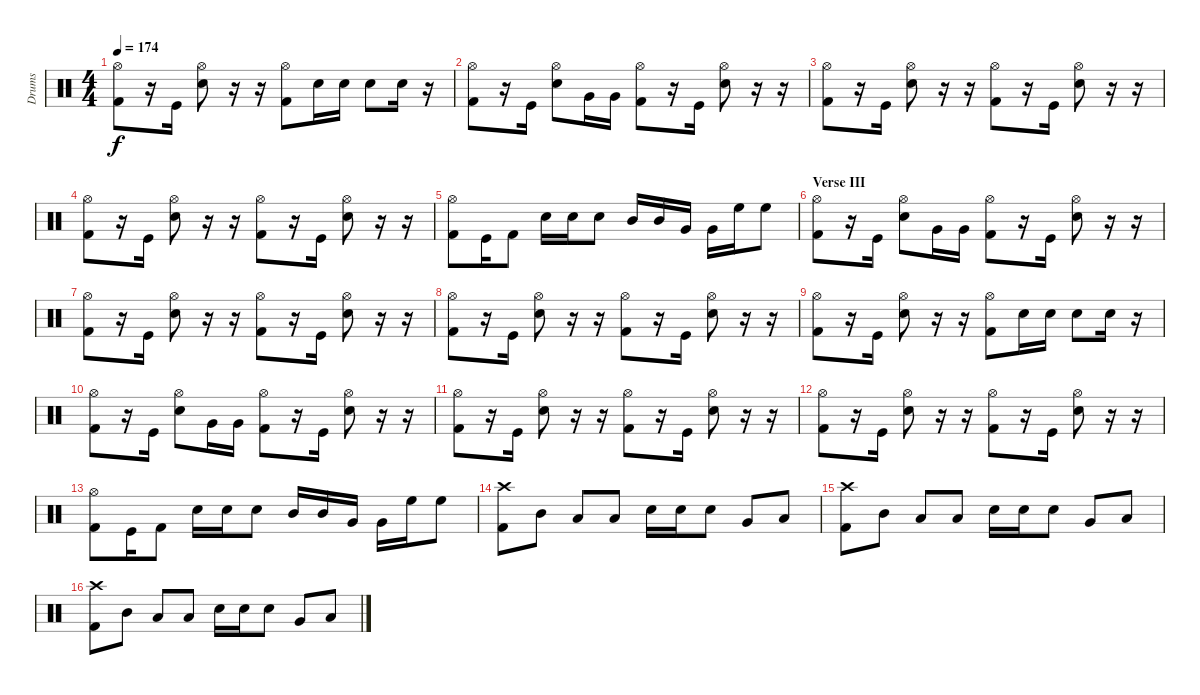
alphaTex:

\track ("Drums" "Drums") {instrument percussion}
\staff {score}
\articulation defaults
\ts (4 4)
\tempo 174
\clef neutral
\ks c
("Hi-Hat (open)" "Kick (hit) 2").8{dy f} r.16 "Kick (hit)".16 ("Hi-Hat (open)" "Snare (hit) 2").8 r.16 r.16 ("Hi-Hat (open)" "Kick (hit) 2").8 "Snare (hit) 2".16 "Snare (hit) 2".16 "Snare (hit) 2".8 "Snare (hit) 2".16 r.16 |
("Hi-Hat (open)" "Kick (hit) 2").8 r.16 "Kick (hit)".16 ("Hi-Hat (open)" "Snare (hit) 2").8 "Very Low Tom (hit)".16 "Very Low Tom (hit)".16 ("Hi-Hat (open)" "Kick (hit) 2").8 r.16 "Kick (hit)".16 ("Hi-Hat (open)" "Snare (hit) 2").8 r.16 r.16 |
("Hi-Hat (open)" "Kick (hit) 2").8 r.16 "Kick (hit)".16 ("Hi-Hat (open)" "Snare (hit) 2").8 r.16 r.16 ("Hi-Hat (open)" "Kick (hit) 2").8 r.16 "Kick (hit)".16 ("Hi-Hat (open)" "Snare (hit) 2").8 r.16 r.16 |
("Hi-Hat (open)" "Kick (hit) 2").8 r.16 "Kick (hit)".16 ("Hi-Hat (open)" "Snare (hit) 2").8 r.16 r.16 ("Hi-Hat (open)" "Kick (hit) 2").8 r.16 "Kick (hit)".16 ("Hi-Hat (open)" "Snare (hit) 2").8 r.16 r.16 |
("Hi-Hat (open)" "Kick (hit) 2").8 "Kick (hit)".16 "Kick (hit) 2".8 "Snare (hit) 2".16 "Snare (hit) 2".16 "Snare (hit) 2".8 "Mid Tom (hit)".16 "Mid Tom (hit)".16 "Very Low Tom (hit)".16 "Very Low Tom (hit)".16 "High Floor Tom (hit)".16 "High Floor Tom (hit)".8 |
\section ("" "Verse III")
("Hi-Hat (open)" "Kick (hit) 2").8 r.16 "Kick (hit)".16 ("Hi-Hat (open)" "Snare (hit) 2").8 "Very Low Tom (hit)".16 "Very Low Tom (hit)".16 ("Hi-Hat (open)" "Kick (hit) 2").8 r.16 "Kick (hit)".16 ("Hi-Hat (open)" "Snare (hit) 2").8 r.16 r.16 |
("Hi-Hat (open)" "Kick (hit) 2").8 r.16 "Kick (hit)".16 ("Hi-Hat (open)" "Snare (hit) 2").8 r.16 r.16 ("Hi-Hat (open)" "Kick (hit) 2").8 r.16 "Kick (hit)".16 ("Hi-Hat (open)" "Snare (hit) 2").8 r.16 r.16 |
("Hi-Hat (open)" "Kick (hit) 2").8 r.16 "Kick (hit)".16 ("Hi-Hat (open)" "Snare (hit) 2").8 r.16 r.16 ("Hi-Hat (open)" "Kick (hit) 2").8 r.16 "Kick (hit)".16 ("Hi-Hat (open)" "Snare (hit) 2").8 r.16 r.16 |
("Hi-Hat (open)" "Kick (hit) 2").8 r.16 "Kick (hit)".16 ("Hi-Hat (open)" "Snare (hit) 2").8 r.16 r.16 ("Hi-Hat (open)" "Kick (hit) 2").8 "Snare (hit) 2".16 "Snare (hit) 2".16 "Snare (hit) 2".8 "Snare (hit) 2".16 r.16 |
("Hi-Hat (open)" "Kick (hit) 2").8 r.16 "Kick (hit)".16 ("Hi-Hat (open)" "Snare (hit) 2").8 "Very Low Tom (hit)".16 "Very Low Tom (hit)".16 ("Hi-Hat (open)" "Kick (hit) 2").8 r.16 "Kick (hit)".16 ("Hi-Hat (open)" "Snare (hit) 2").8 r.16 r.16 |
("Hi-Hat (open)" "Kick (hit) 2").8 r.16 "Kick (hit)".16 ("Hi-Hat (open)" "Snare (hit) 2").8 r.16 r.16 ("Hi-Hat (open)" "Kick (hit) 2").8 r.16 "Kick (hit)".16 ("Hi-Hat (open)" "Snare (hit) 2").8 r.16 r.16 |
("Hi-Hat (open)" "Kick (hit) 2").8 r.16 "Kick (hit)".16 ("Hi-Hat (open)" "Snare (hit) 2").8 r.16 r.16 ("Hi-Hat (open)" "Kick (hit) 2").8 r.16 "Kick (hit)".16 ("Hi-Hat (open)" "Snare (hit) 2").8 r.16 r.16 |
("Hi-Hat (open)" "Kick (hit) 2").8 "Kick (hit)".16 "Kick (hit) 2".8 "Snare (hit) 2".16 "Snare (hit) 2".16 "Snare (hit) 2".8 "Mid Tom (hit)".16 "Mid Tom (hit)".16 "Very Low Tom (hit)".16 "Very Low Tom (hit)".16 "High Floor Tom (hit)".16 "High Floor Tom (hit)".8 |
("Crash high (hit)" "Kick (hit) 2").8 "Mid Tom (hit)".8 "Low Tom (hit)".8 "Low Tom (hit)".8 "Snare (hit) 2".16 "Snare (hit) 2".16 "Snare (hit) 2".8 "Very Low Tom (hit)".8 "Low Floor Tom (hit)".8 |
("Crash high (hit)" "Kick (hit) 2").8 "Mid Tom (hit)".8 "Low Tom (hit)".8 "Low Tom (hit)".8 "Snare (hit) 2".16 "Snare (hit) 2".16 "Snare (hit) 2".8 "Very Low Tom (hit)".8 "Low Floor Tom (hit)".8 |
("Crash high (hit)" "Kick (hit) 2").8 "Mid Tom (hit)".8 "Low Tom (hit)".8 "Low Tom (hit)".8 "Snare (hit) 2".16 "Snare (hit) 2".16 "Snare (hit) 2".8 "Very Low Tom (hit)".8 "Low Floor Tom (hit)".8
